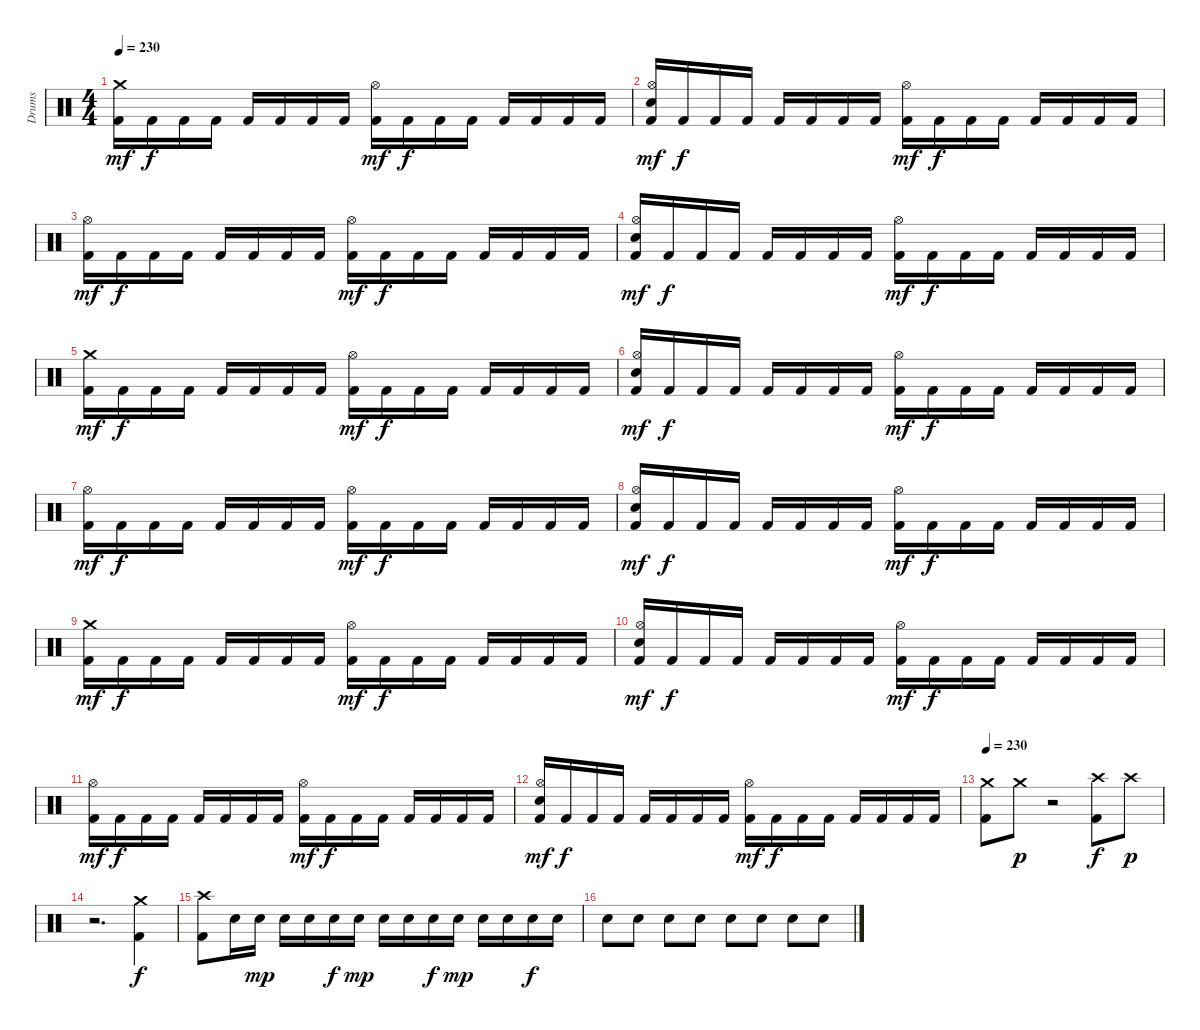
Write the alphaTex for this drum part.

\track ("Drums" "Drums") {instrument percussion}
\staff {score}
\articulation defaults
\ts (4 4)
\tempo 230
\clef neutral
\ks c
("Crash medium (hit)" "Kick (hit) 2").16{dy mf} "Kick (hit) 2".16{dy f} "Kick (hit) 2".16 "Kick (hit) 2".16 "Kick (hit) 2".16 "Kick (hit) 2".16 "Kick (hit) 2".16 "Kick (hit) 2".16 ("Hi-Hat (open)" "Kick (hit) 2").16{dy mf} "Kick (hit) 2".16{dy f} "Kick (hit) 2".16 "Kick (hit) 2".16 "Kick (hit) 2".16 "Kick (hit) 2".16 "Kick (hit) 2".16 "Kick (hit) 2".16 |
("Hi-Hat (open)" "Snare (hit) 2" "Kick (hit) 2").16{dy mf} "Kick (hit) 2".16{dy f} "Kick (hit) 2".16 "Kick (hit) 2".16 "Kick (hit) 2".16 "Kick (hit) 2".16 "Kick (hit) 2".16 "Kick (hit) 2".16 ("Hi-Hat (open)" "Kick (hit) 2").16{dy mf} "Kick (hit) 2".16{dy f} "Kick (hit) 2".16 "Kick (hit) 2".16 "Kick (hit) 2".16 "Kick (hit) 2".16 "Kick (hit) 2".16 "Kick (hit) 2".16 |
("Hi-Hat (open)" "Kick (hit) 2").16{dy mf} "Kick (hit) 2".16{dy f} "Kick (hit) 2".16 "Kick (hit) 2".16 "Kick (hit) 2".16 "Kick (hit) 2".16 "Kick (hit) 2".16 "Kick (hit) 2".16 ("Hi-Hat (open)" "Kick (hit) 2").16{dy mf} "Kick (hit) 2".16{dy f} "Kick (hit) 2".16 "Kick (hit) 2".16 "Kick (hit) 2".16 "Kick (hit) 2".16 "Kick (hit) 2".16 "Kick (hit) 2".16 |
("Hi-Hat (open)" "Snare (hit) 2" "Kick (hit) 2").16{dy mf} "Kick (hit) 2".16{dy f} "Kick (hit) 2".16 "Kick (hit) 2".16 "Kick (hit) 2".16 "Kick (hit) 2".16 "Kick (hit) 2".16 "Kick (hit) 2".16 ("Hi-Hat (open)" "Kick (hit) 2").16{dy mf} "Kick (hit) 2".16{dy f} "Kick (hit) 2".16 "Kick (hit) 2".16 "Kick (hit) 2".16 "Kick (hit) 2".16 "Kick (hit) 2".16 "Kick (hit) 2".16 |
("Crash medium (hit)" "Kick (hit) 2").16{dy mf} "Kick (hit) 2".16{dy f} "Kick (hit) 2".16 "Kick (hit) 2".16 "Kick (hit) 2".16 "Kick (hit) 2".16 "Kick (hit) 2".16 "Kick (hit) 2".16 ("Hi-Hat (open)" "Kick (hit) 2").16{dy mf} "Kick (hit) 2".16{dy f} "Kick (hit) 2".16 "Kick (hit) 2".16 "Kick (hit) 2".16 "Kick (hit) 2".16 "Kick (hit) 2".16 "Kick (hit) 2".16 |
("Hi-Hat (open)" "Snare (hit) 2" "Kick (hit) 2").16{dy mf} "Kick (hit) 2".16{dy f} "Kick (hit) 2".16 "Kick (hit) 2".16 "Kick (hit) 2".16 "Kick (hit) 2".16 "Kick (hit) 2".16 "Kick (hit) 2".16 ("Hi-Hat (open)" "Kick (hit) 2").16{dy mf} "Kick (hit) 2".16{dy f} "Kick (hit) 2".16 "Kick (hit) 2".16 "Kick (hit) 2".16 "Kick (hit) 2".16 "Kick (hit) 2".16 "Kick (hit) 2".16 |
("Hi-Hat (open)" "Kick (hit) 2").16{dy mf} "Kick (hit) 2".16{dy f} "Kick (hit) 2".16 "Kick (hit) 2".16 "Kick (hit) 2".16 "Kick (hit) 2".16 "Kick (hit) 2".16 "Kick (hit) 2".16 ("Hi-Hat (open)" "Kick (hit) 2").16{dy mf} "Kick (hit) 2".16{dy f} "Kick (hit) 2".16 "Kick (hit) 2".16 "Kick (hit) 2".16 "Kick (hit) 2".16 "Kick (hit) 2".16 "Kick (hit) 2".16 |
("Hi-Hat (open)" "Snare (hit) 2" "Kick (hit) 2").16{dy mf} "Kick (hit) 2".16{dy f} "Kick (hit) 2".16 "Kick (hit) 2".16 "Kick (hit) 2".16 "Kick (hit) 2".16 "Kick (hit) 2".16 "Kick (hit) 2".16 ("Hi-Hat (open)" "Kick (hit) 2").16{dy mf} "Kick (hit) 2".16{dy f} "Kick (hit) 2".16 "Kick (hit) 2".16 "Kick (hit) 2".16 "Kick (hit) 2".16 "Kick (hit) 2".16 "Kick (hit) 2".16 |
("Crash medium (hit)" "Kick (hit) 2").16{dy mf} "Kick (hit) 2".16{dy f} "Kick (hit) 2".16 "Kick (hit) 2".16 "Kick (hit) 2".16 "Kick (hit) 2".16 "Kick (hit) 2".16 "Kick (hit) 2".16 ("Hi-Hat (open)" "Kick (hit) 2").16{dy mf} "Kick (hit) 2".16{dy f} "Kick (hit) 2".16 "Kick (hit) 2".16 "Kick (hit) 2".16 "Kick (hit) 2".16 "Kick (hit) 2".16 "Kick (hit) 2".16 |
("Hi-Hat (open)" "Snare (hit) 2" "Kick (hit) 2").16{dy mf} "Kick (hit) 2".16{dy f} "Kick (hit) 2".16 "Kick (hit) 2".16 "Kick (hit) 2".16 "Kick (hit) 2".16 "Kick (hit) 2".16 "Kick (hit) 2".16 ("Hi-Hat (open)" "Kick (hit) 2").16{dy mf} "Kick (hit) 2".16{dy f} "Kick (hit) 2".16 "Kick (hit) 2".16 "Kick (hit) 2".16 "Kick (hit) 2".16 "Kick (hit) 2".16 "Kick (hit) 2".16 |
("Hi-Hat (open)" "Kick (hit) 2").16{dy mf} "Kick (hit) 2".16{dy f} "Kick (hit) 2".16 "Kick (hit) 2".16 "Kick (hit) 2".16 "Kick (hit) 2".16 "Kick (hit) 2".16 "Kick (hit) 2".16 ("Hi-Hat (open)" "Kick (hit) 2").16{dy mf} "Kick (hit) 2".16{dy f} "Kick (hit) 2".16 "Kick (hit) 2".16 "Kick (hit) 2".16 "Kick (hit) 2".16 "Kick (hit) 2".16 "Kick (hit) 2".16 |
("Hi-Hat (open)" "Snare (hit) 2" "Kick (hit) 2").16{dy mf} "Kick (hit) 2".16{dy f} "Kick (hit) 2".16 "Kick (hit) 2".16 "Kick (hit) 2".16 "Kick (hit) 2".16 "Kick (hit) 2".16 "Kick (hit) 2".16 ("Hi-Hat (open)" "Kick (hit) 2").16{dy mf} "Kick (hit) 2".16{dy f} "Kick (hit) 2".16 "Kick (hit) 2".16 "Kick (hit) 2".16 "Kick (hit) 2".16 "Kick (hit) 2".16 "Kick (hit) 2".16 |
\tempo 230
("Crash medium (hit)" "Kick (hit) 2").8 "Crash medium (hit)".8{dy p} r.2 ("Crash high (hit)" "Kick (hit) 2").8{dy f} "Crash high (hit)".8{dy p} |
r.2{d} ("Crash medium (hit)" "Kick (hit) 2").4{dy f} |
("Crash high (hit)" "Kick (hit) 2").8 "Snare (hit) 2".16 "Snare (hit) 2".16{dy mp} "Snare (hit) 2".16 "Snare (hit) 2".16 "Snare (hit) 2".16{dy f} "Snare (hit) 2".16{dy mp} "Snare (hit) 2".16 "Snare (hit) 2".16 "Snare (hit) 2".16{dy f} "Snare (hit) 2".16{dy mp} "Snare (hit) 2".16 "Snare (hit) 2".16 "Snare (hit) 2".16{dy f} "Snare (hit) 2".16 |
"Snare (hit) 2".8 "Snare (hit) 2".8 "Snare (hit) 2".8 "Snare (hit) 2".8 "Snare (hit) 2".8 "Snare (hit) 2".8 "Snare (hit) 2".8 "Snare (hit) 2".8
